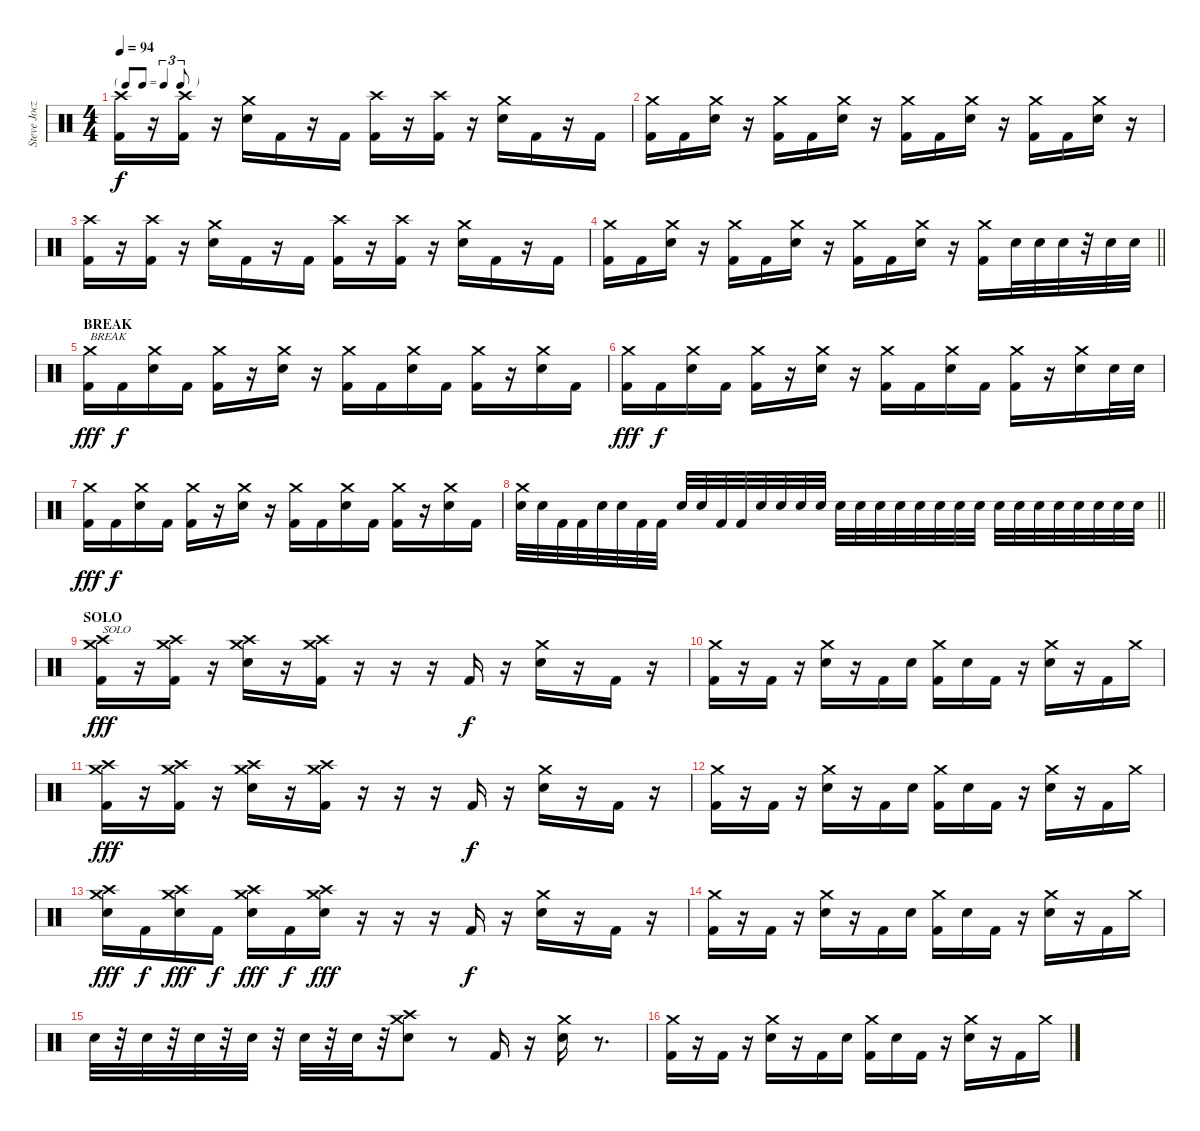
\track ("Steve Jocz   \"Stevo32\"        (drums)" "Steve Jocz") {instrument percussion}
\staff {score}
\articulation defaults
\ts (4 4)
\tf triplet8th
\tempo 94
\clef neutral
\ks c
("Crash high (hit)" "Kick (hit) 2").16{dy f} r.16 ("Crash high (hit)" "Kick (hit) 2").16 r.16 ("Crash medium (hit)" "Electric Snare (hit)").16 "Kick (hit) 2".16 r.16 "Kick (hit) 2".16 ("Crash high (hit)" "Kick (hit) 2").16 r.16 ("Crash high (hit)" "Kick (hit) 2").16 r.16 ("Crash medium (hit)" "Electric Snare (hit)").16 "Kick (hit) 2".16 r.16 "Kick (hit) 2".16 |
("Crash medium (hit)" "Kick (hit) 2").16 "Kick (hit) 2".16 ("Crash medium (hit)" "Electric Snare (hit)").16 r.16 ("Crash medium (hit)" "Kick (hit) 2").16 "Kick (hit) 2".16 ("Crash medium (hit)" "Electric Snare (hit)").16 r.16 ("Crash medium (hit)" "Kick (hit) 2").16 "Kick (hit) 2".16 ("Crash medium (hit)" "Electric Snare (hit)").16 r.16 ("Crash medium (hit)" "Kick (hit) 2").16 "Kick (hit) 2".16 ("Crash medium (hit)" "Electric Snare (hit)").16 r.16 |
("Crash high (hit)" "Kick (hit) 2").16 r.16 ("Crash high (hit)" "Kick (hit) 2").16 r.16 ("Crash medium (hit)" "Electric Snare (hit)").16 "Kick (hit) 2".16 r.16 "Kick (hit) 2".16 ("Crash high (hit)" "Kick (hit) 2").16 r.16 ("Crash high (hit)" "Kick (hit) 2").16 r.16 ("Crash medium (hit)" "Electric Snare (hit)").16 "Kick (hit) 2".16 r.16 "Kick (hit) 2".16 |
\barLineRight lightlight
("Crash medium (hit)" "Kick (hit) 2").16 "Kick (hit) 2".16 ("Crash medium (hit)" "Electric Snare (hit)").16 r.16 ("Crash medium (hit)" "Kick (hit) 2").16 "Kick (hit) 2".16 ("Crash medium (hit)" "Electric Snare (hit)").16 r.16 ("Crash medium (hit)" "Kick (hit) 2").16 "Kick (hit) 2".16 ("Crash medium (hit)" "Electric Snare (hit)").16 r.16 ("Crash medium (hit)" "Kick (hit) 2").16 "Electric Snare (hit)".32 "Electric Snare (hit)".32 "Electric Snare (hit)".32 r.32 "Electric Snare (hit)".32 "Electric Snare (hit)".32 |
\section ("" "BREAK")
("Crash medium (hit)" "Kick (hit) 2").16{txt "BREAK" dy fff} "Kick (hit) 2".16{dy f} ("Crash medium (hit)" "Electric Snare (hit)").16 "Kick (hit) 2".16 ("Crash medium (hit)" "Kick (hit) 2").16 r.16 ("Crash medium (hit)" "Electric Snare (hit)").16 r.16 ("Crash medium (hit)" "Kick (hit) 2").16 "Kick (hit) 2".16 ("Crash medium (hit)" "Electric Snare (hit)").16 "Kick (hit) 2".16 ("Crash medium (hit)" "Kick (hit) 2").16 r.16 ("Crash medium (hit)" "Electric Snare (hit)").16 "Kick (hit) 2".16 |
("Crash medium (hit)" "Kick (hit) 2").16{dy fff} "Kick (hit) 2".16{dy f} ("Crash medium (hit)" "Electric Snare (hit)").16 "Kick (hit) 2".16 ("Crash medium (hit)" "Kick (hit) 2").16 r.16 ("Crash medium (hit)" "Electric Snare (hit)").16 r.16 ("Crash medium (hit)" "Kick (hit) 2").16 "Kick (hit) 2".16 ("Crash medium (hit)" "Electric Snare (hit)").16 "Kick (hit) 2".16 ("Crash medium (hit)" "Kick (hit) 2").16 r.16 ("Crash medium (hit)" "Electric Snare (hit)").16 "Electric Snare (hit)".32 "Electric Snare (hit)".32 |
("Crash medium (hit)" "Kick (hit) 2").16{dy fff} "Kick (hit) 2".16{dy f} ("Crash medium (hit)" "Electric Snare (hit)").16 "Kick (hit) 2".16 ("Crash medium (hit)" "Kick (hit) 2").16 r.16 ("Crash medium (hit)" "Electric Snare (hit)").16 r.16 ("Crash medium (hit)" "Kick (hit) 2").16 "Kick (hit) 2".16 ("Crash medium (hit)" "Electric Snare (hit)").16 "Kick (hit) 2".16 ("Crash medium (hit)" "Kick (hit) 2").16 r.16 ("Crash medium (hit)" "Electric Snare (hit)").16 "Kick (hit) 2".16 |
\barLineRight lightlight
("Crash medium (hit)" "Electric Snare (hit)").32 "Electric Snare (hit)".32 "Kick (hit) 2".32 "Kick (hit) 2".32 "Electric Snare (hit)".32 "Electric Snare (hit)".32 "Kick (hit) 2".32 "Kick (hit) 2".32 "Electric Snare (hit)".32 "Electric Snare (hit)".32 "Kick (hit) 2".32 "Kick (hit) 2".32 "Electric Snare (hit)".32 "Electric Snare (hit)".32 "Electric Snare (hit)".32 "Electric Snare (hit)".32 "Electric Snare (hit)".32 "Electric Snare (hit)".32 "Electric Snare (hit)".32 "Electric Snare (hit)".32 "Electric Snare (hit)".32 "Electric Snare (hit)".32 "Electric Snare (hit)".32 "Electric Snare (hit)".32 "Electric Snare (hit)".32 "Electric Snare (hit)".32 "Electric Snare (hit)".32 "Electric Snare (hit)".32 "Electric Snare (hit)".32 "Electric Snare (hit)".32 "Electric Snare (hit)".32 "Electric Snare (hit)".32 |
\section ("" "SOLO")
("Crash high (hit)" "Crash medium (hit)" "Kick (hit) 2").16{txt "SOLO" dy fff} r.16 ("Crash high (hit)" "Crash medium (hit)" "Kick (hit) 2").16 r.16 ("Crash high (hit)" "Crash medium (hit)" "Electric Snare (hit)").16 r.16 ("Crash high (hit)" "Crash medium (hit)" "Kick (hit) 2").16 r.16 r.16 r.16 "Kick (hit) 2".16{dy f} r.16 ("Crash medium (hit)" "Electric Snare (hit)").16 r.16 "Kick (hit) 2".16 r.16 |
("Crash medium (hit)" "Kick (hit) 2").16 r.16 "Kick (hit) 2".16 r.16 ("Crash medium (hit)" "Electric Snare (hit)").16 r.16 "Kick (hit) 2".16 "Electric Snare (hit)".16 ("Crash medium (hit)" "Kick (hit) 2").16 "Electric Snare (hit)".16 "Kick (hit) 2".16 r.16 ("Crash medium (hit)" "Electric Snare (hit)").16 r.16 "Kick (hit) 2".16 "Crash medium (hit)".16 |
("Crash high (hit)" "Crash medium (hit)" "Kick (hit) 2").16{dy fff} r.16 ("Crash high (hit)" "Crash medium (hit)" "Kick (hit) 2").16 r.16 ("Crash high (hit)" "Crash medium (hit)" "Electric Snare (hit)").16 r.16 ("Crash high (hit)" "Crash medium (hit)" "Kick (hit) 2").16 r.16 r.16 r.16 "Kick (hit) 2".16{dy f} r.16 ("Crash medium (hit)" "Electric Snare (hit)").16 r.16 "Kick (hit) 2".16 r.16 |
("Crash medium (hit)" "Kick (hit) 2").16 r.16 "Kick (hit) 2".16 r.16 ("Crash medium (hit)" "Electric Snare (hit)").16 r.16 "Kick (hit) 2".16 "Electric Snare (hit)".16 ("Crash medium (hit)" "Kick (hit) 2").16 "Electric Snare (hit)".16 "Kick (hit) 2".16 r.16 ("Crash medium (hit)" "Electric Snare (hit)").16 r.16 "Kick (hit) 2".16 "Crash medium (hit)".16 |
("Crash high (hit)" "Crash medium (hit)" "Electric Snare (hit)").16{dy fff} "Kick (hit) 2".16{dy f} ("Crash high (hit)" "Crash medium (hit)" "Electric Snare (hit)").16{dy fff} "Kick (hit) 2".16{dy f} ("Crash high (hit)" "Crash medium (hit)" "Electric Snare (hit)").16{dy fff} "Kick (hit) 2".16{dy f} ("Crash high (hit)" "Crash medium (hit)" "Electric Snare (hit)").16{dy fff} r.16 r.16 r.16 "Kick (hit) 2".16{dy f} r.16 ("Crash medium (hit)" "Electric Snare (hit)").16 r.16 "Kick (hit) 2".16 r.16 |
("Crash medium (hit)" "Kick (hit) 2").16 r.16 "Kick (hit) 2".16 r.16 ("Crash medium (hit)" "Electric Snare (hit)").16 r.16 "Kick (hit) 2".16 "Electric Snare (hit)".16 ("Crash medium (hit)" "Kick (hit) 2").16 "Electric Snare (hit)".16 "Kick (hit) 2".16 r.16 ("Crash medium (hit)" "Electric Snare (hit)").16 r.16 "Kick (hit) 2".16 "Crash medium (hit)".16 |
"Electric Snare (hit)".32 r.32 "Electric Snare (hit)".32 r.32 "Electric Snare (hit)".32 r.32 "Electric Snare (hit)".32 r.32 "Electric Snare (hit)".32 r.32 "Electric Snare (hit)".32 r.32 ("Crash medium (hit)" "Crash high (hit)" "Electric Snare (hit)").8 r.8 "Kick (hit) 2".16 r.16 ("Crash medium (hit)" "Electric Snare (hit)").16 r.8{d} |
("Crash medium (hit)" "Kick (hit) 2").16 r.16 "Kick (hit) 2".16 r.16 ("Crash medium (hit)" "Electric Snare (hit)").16 r.16 "Kick (hit) 2".16 "Electric Snare (hit)".16 ("Crash medium (hit)" "Kick (hit) 2").16 "Electric Snare (hit)".16 "Kick (hit) 2".16 r.16 ("Crash medium (hit)" "Electric Snare (hit)").16 r.16 "Kick (hit) 2".16 "Crash medium (hit)".16
